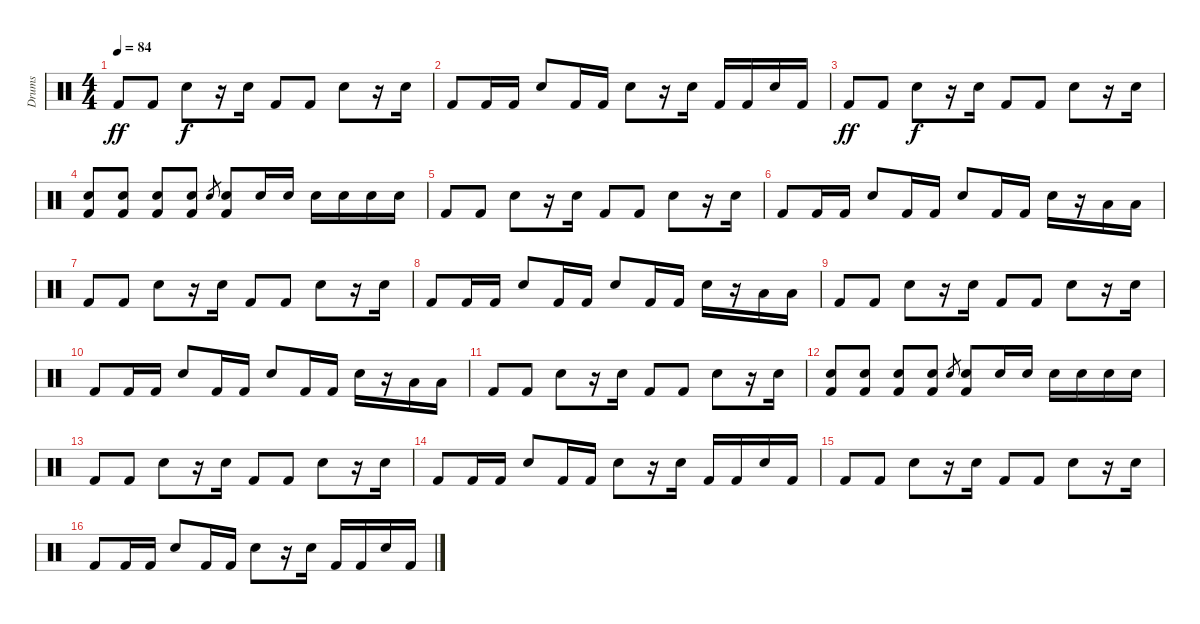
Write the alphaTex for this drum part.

\track ("Drums" "Drums") {instrument percussion}
\staff {score}
\articulation defaults
\ts (4 4)
\tempo 84
\clef neutral
\ks c "Kick (hit) 2".8{dy ff} "Kick (hit) 2".8 "Snare (hit) 2".8{dy f}
r.16 "Snare (hit) 2".16 "Kick (hit) 2".8 "Kick (hit) 2".8 "Snare (hit) 2".8 r.16 "Snare (hit) 2".16 |
"Kick (hit) 2".8 "Kick (hit) 2".16 "Kick (hit) 2".16 "Snare (hit) 2".8 "Kick (hit) 2".16 "Kick (hit) 2".16 "Snare (hit) 2".8 r.16 "Snare (hit) 2".16 "Kick (hit) 2".16 "Kick (hit) 2".16 "Snare (hit) 2".16 "Kick (hit) 2".16 |
"Kick (hit) 2".8{dy ff} "Kick (hit) 2".8 "Snare (hit) 2".8{dy f} r.16 "Snare (hit) 2".16 "Kick (hit) 2".8 "Kick (hit) 2".8 "Snare (hit) 2".8 r.16 "Snare (hit) 2".16 |
("Snare (hit) 2" "Kick (hit) 2").8 ("Snare (hit) 2" "Kick (hit) 2").8 ("Snare (hit) 2" "Kick (hit) 2").8 ("Snare (hit) 2" "Kick (hit) 2").8 "Snare (hit) 2".8{gr} ("Snare (hit) 2" "Kick (hit) 2").8 "Snare (hit) 2".16 "Snare (hit) 2".16 "Snare (hit) 2".16 "Snare (hit) 2".16 "Snare (hit) 2".16 "Snare (hit) 2".16 |
"Kick (hit) 2".8 "Kick (hit) 2".8 "Snare (hit) 2".8 r.16 "Snare (hit) 2".16 "Kick (hit) 2".8 "Kick (hit) 2".8 "Snare (hit) 2".8 r.16 "Snare (hit) 2".16 |
"Kick (hit) 2".8 "Kick (hit) 2".16 "Kick (hit) 2".16 "Snare (hit) 2".8 "Kick (hit) 2".16 "Kick (hit) 2".16 "Snare (hit) 2".8 "Kick (hit) 2".16 "Kick (hit) 2".16 "Snare (hit) 2".16 r.16 "Low Tom (hit)".16 "Low Floor Tom (hit)".16 |
"Kick (hit) 2".8 "Kick (hit) 2".8 "Snare (hit) 2".8 r.16 "Snare (hit) 2".16 "Kick (hit) 2".8 "Kick (hit) 2".8 "Snare (hit) 2".8 r.16 "Snare (hit) 2".16 |
"Kick (hit) 2".8 "Kick (hit) 2".16 "Kick (hit) 2".16 "Snare (hit) 2".8 "Kick (hit) 2".16 "Kick (hit) 2".16 "Snare (hit) 2".8 "Kick (hit) 2".16 "Kick (hit) 2".16 "Snare (hit) 2".16 r.16 "Low Tom (hit)".16 "Low Floor Tom (hit)".16 |
"Kick (hit) 2".8 "Kick (hit) 2".8 "Snare (hit) 2".8 r.16 "Snare (hit) 2".16 "Kick (hit) 2".8 "Kick (hit) 2".8 "Snare (hit) 2".8 r.16 "Snare (hit) 2".16 |
"Kick (hit) 2".8 "Kick (hit) 2".16 "Kick (hit) 2".16 "Snare (hit) 2".8 "Kick (hit) 2".16 "Kick (hit) 2".16 "Snare (hit) 2".8 "Kick (hit) 2".16 "Kick (hit) 2".16 "Snare (hit) 2".16 r.16 "Low Tom (hit)".16 "Low Floor Tom (hit)".16 |
"Kick (hit) 2".8 "Kick (hit) 2".8 "Snare (hit) 2".8 r.16 "Snare (hit) 2".16 "Kick (hit) 2".8 "Kick (hit) 2".8 "Snare (hit) 2".8 r.16 "Snare (hit) 2".16 |
("Snare (hit) 2" "Kick (hit) 2").8 ("Snare (hit) 2" "Kick (hit) 2").8 ("Snare (hit) 2" "Kick (hit) 2").8 ("Snare (hit) 2" "Kick (hit) 2").8 "Snare (hit) 2".8{gr} ("Snare (hit) 2" "Kick (hit) 2").8 "Snare (hit) 2".16 "Snare (hit) 2".16 "Snare (hit) 2".16 "Snare (hit) 2".16 "Snare (hit) 2".16 "Snare (hit) 2".16 |
"Kick (hit) 2".8 "Kick (hit) 2".8 "Snare (hit) 2".8 r.16 "Snare (hit) 2".16 "Kick (hit) 2".8 "Kick (hit) 2".8 "Snare (hit) 2".8 r.16 "Snare (hit) 2".16 |
"Kick (hit) 2".8 "Kick (hit) 2".16 "Kick (hit) 2".16 "Snare (hit) 2".8 "Kick (hit) 2".16 "Kick (hit) 2".16 "Snare (hit) 2".8 r.16 "Snare (hit) 2".16 "Kick (hit) 2".16 "Kick (hit) 2".16 "Snare (hit) 2".16 "Kick (hit) 2".16 |
"Kick (hit) 2".8 "Kick (hit) 2".8 "Snare (hit) 2".8 r.16 "Snare (hit) 2".16 "Kick (hit) 2".8 "Kick (hit) 2".8 "Snare (hit) 2".8 r.16 "Snare (hit) 2".16 |
"Kick (hit) 2".8 "Kick (hit) 2".16 "Kick (hit) 2".16 "Snare (hit) 2".8 "Kick (hit) 2".16 "Kick (hit) 2".16 "Snare (hit) 2".8 r.16 "Snare (hit) 2".16 "Kick (hit) 2".16 "Kick (hit) 2".16 "Snare (hit) 2".16 "Kick (hit) 2".16
